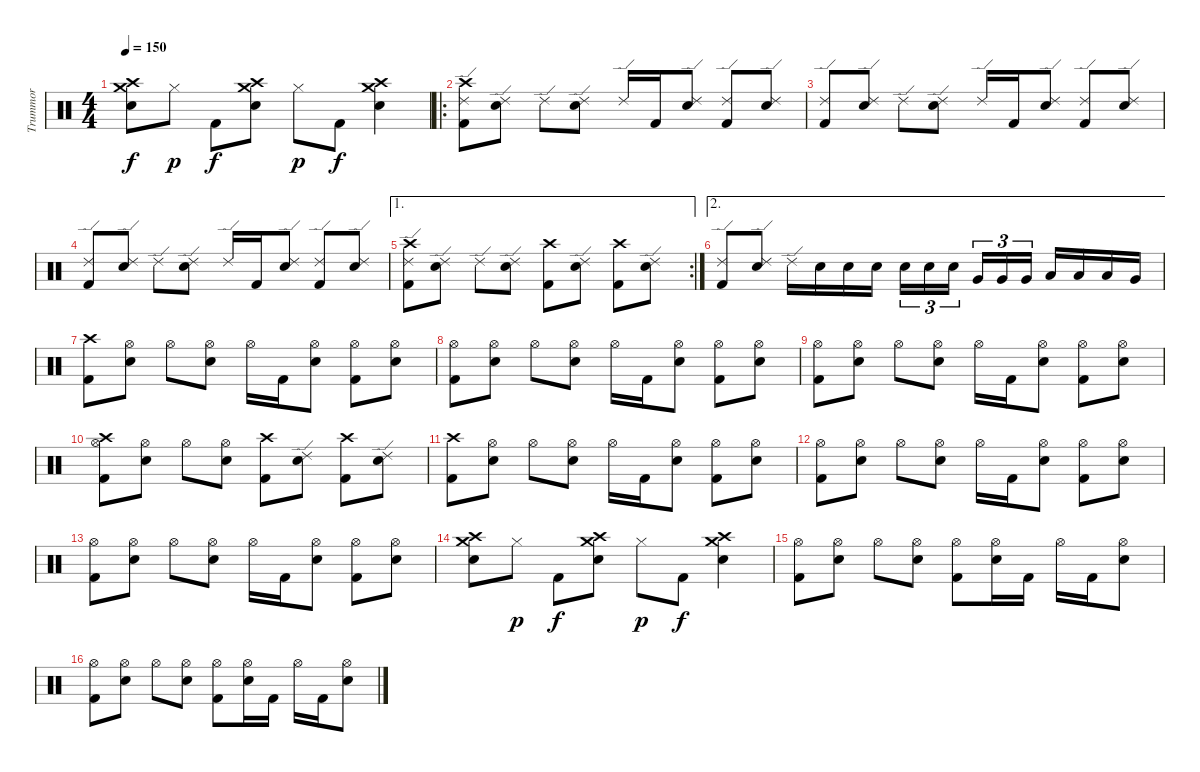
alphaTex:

\track ("Trummor" "Trummor") {instrument percussion}
\staff {score}
\articulation defaults
\ts (4 4)
\tempo 150
\clef neutral
\ks c
("Crash medium (hit)" "Snare (hit) 2" "Crash high (hit)").8{dy f} "Hi-Hat (closed)".8{dy p} "Kick (hit) 2".8{dy f} ("Crash medium (hit)" "Snare (hit) 2" "Crash high (hit)").8 "Hi-Hat (closed)".8{dy p} "Kick (hit) 2".8{dy f} ("Crash medium (hit)" "Snare (hit) 2" "Crash high (hit)").4 |
\ro
("Ride (edge) 2" "Crash high (hit)" "Kick (hit) 2").8 ("Ride (edge) 2" "Snare (hit) 2").8 "Ride (edge) 2".8 ("Ride (edge) 2" "Snare (hit) 2").8 "Ride (edge) 2".16 "Kick (hit) 2".16 ("Ride (edge) 2" "Snare (hit) 2").8 ("Ride (edge) 2" "Kick (hit) 2").8 ("Ride (edge) 2" "Snare (hit) 2").8 |
("Ride (edge) 2" "Kick (hit) 2").8 ("Ride (edge) 2" "Snare (hit) 2").8 "Ride (edge) 2".8 ("Ride (edge) 2" "Snare (hit) 2").8 "Ride (edge) 2".16 "Kick (hit) 2".16 ("Ride (edge) 2" "Snare (hit) 2").8 ("Ride (edge) 2" "Kick (hit) 2").8 ("Ride (edge) 2" "Snare (hit) 2").8 |
("Ride (edge) 2" "Kick (hit) 2").8 ("Ride (edge) 2" "Snare (hit) 2").8 "Ride (edge) 2".8 ("Ride (edge) 2" "Snare (hit) 2").8 "Ride (edge) 2".16 "Kick (hit) 2".16 ("Ride (edge) 2" "Snare (hit) 2").8 ("Ride (edge) 2" "Kick (hit) 2").8 ("Ride (edge) 2" "Snare (hit) 2").8 |
\ae 1
\rc 2
("Ride (edge) 2" "Crash high (hit)" "Kick (hit) 2").8 ("Ride (edge) 2" "Snare (hit) 2").8 "Ride (edge) 2".8 ("Ride (edge) 2" "Snare (hit) 2").8 ("Crash high (hit)" "Kick (hit) 2").8 ("Ride (edge) 2" "Snare (hit) 2").8 ("Crash high (hit)" "Kick (hit) 2").8 ("Ride (edge) 2" "Snare (hit) 2").8 |
\ae 2
("Ride (edge) 2" "Kick (hit) 2").8 ("Ride (edge) 2" "Snare (hit) 2").8 "Ride (edge) 2".16 "Snare (hit) 2".16 "Snare (hit) 2".16 "Snare (hit) 2".16 "Snare (hit) 2".16{tu (3 2)} "Snare (hit) 2".16{tu (3 2)} "Snare (hit) 2".16{tu (3 2)} "Very Low Tom (hit)".16{tu (3 2)} "Very Low Tom (hit)".16{tu (3 2)} "Very Low Tom (hit)".16{tu (3 2)} "Low Floor Tom (hit)".16 "Low Floor Tom (hit)".16 "Low Floor Tom (hit)".16 "Very Low Tom (hit)".16 |
("Crash high (hit)" "Kick (hit) 2").8 ("Hi-Hat (open)" "Snare (hit) 2").8 "Hi-Hat (open)".8 ("Hi-Hat (open)" "Snare (hit) 2").8 "Hi-Hat (open)".16 "Kick (hit) 2".16 ("Hi-Hat (open)" "Snare (hit) 2").8 ("Hi-Hat (open)" "Kick (hit) 2").8 ("Hi-Hat (open)" "Snare (hit) 2").8 |
("Hi-Hat (open)" "Kick (hit) 2").8 ("Hi-Hat (open)" "Snare (hit) 2").8 "Hi-Hat (open)".8 ("Hi-Hat (open)" "Snare (hit) 2").8 "Hi-Hat (open)".16 "Kick (hit) 2".16 ("Hi-Hat (open)" "Snare (hit) 2").8 ("Hi-Hat (open)" "Kick (hit) 2").8 ("Hi-Hat (open)" "Snare (hit) 2").8 |
("Hi-Hat (open)" "Kick (hit) 2").8 ("Hi-Hat (open)" "Snare (hit) 2").8 "Hi-Hat (open)".8 ("Hi-Hat (open)" "Snare (hit) 2").8 "Hi-Hat (open)".16 "Kick (hit) 2".16 ("Hi-Hat (open)" "Snare (hit) 2").8 ("Hi-Hat (open)" "Kick (hit) 2").8 ("Hi-Hat (open)" "Snare (hit) 2").8 |
("Hi-Hat (open)" "Crash high (hit)" "Kick (hit) 2").8 ("Hi-Hat (open)" "Snare (hit) 2").8 "Hi-Hat (open)".8 ("Hi-Hat (open)" "Snare (hit) 2").8 ("Crash high (hit)" "Kick (hit) 2").8 ("Ride (edge) 2" "Snare (hit) 2").8 ("Crash high (hit)" "Kick (hit) 2").8 ("Ride (edge) 2" "Snare (hit) 2").8 |
("Crash high (hit)" "Kick (hit) 2").8 ("Hi-Hat (open)" "Snare (hit) 2").8 "Hi-Hat (open)".8 ("Hi-Hat (open)" "Snare (hit) 2").8 "Hi-Hat (open)".16 "Kick (hit) 2".16 ("Hi-Hat (open)" "Snare (hit) 2").8 ("Hi-Hat (open)" "Kick (hit) 2").8 ("Hi-Hat (open)" "Snare (hit) 2").8 |
("Hi-Hat (open)" "Kick (hit) 2").8 ("Hi-Hat (open)" "Snare (hit) 2").8 "Hi-Hat (open)".8 ("Hi-Hat (open)" "Snare (hit) 2").8 "Hi-Hat (open)".16 "Kick (hit) 2".16 ("Hi-Hat (open)" "Snare (hit) 2").8 ("Hi-Hat (open)" "Kick (hit) 2").8 ("Hi-Hat (open)" "Snare (hit) 2").8 |
("Hi-Hat (open)" "Kick (hit) 2").8 ("Hi-Hat (open)" "Snare (hit) 2").8 "Hi-Hat (open)".8 ("Hi-Hat (open)" "Snare (hit) 2").8 "Hi-Hat (open)".16 "Kick (hit) 2".16 ("Hi-Hat (open)" "Snare (hit) 2").8 ("Hi-Hat (open)" "Kick (hit) 2").8 ("Hi-Hat (open)" "Snare (hit) 2").8 |
("Crash medium (hit)" "Snare (hit) 2" "Crash high (hit)").8 "Hi-Hat (closed)".8{dy p} "Kick (hit) 2".8{dy f} ("Crash medium (hit)" "Snare (hit) 2" "Crash high (hit)").8 "Hi-Hat (closed)".8{dy p} "Kick (hit) 2".8{dy f} ("Crash medium (hit)" "Snare (hit) 2" "Crash high (hit)").4 |
("Hi-Hat (open)" "Kick (hit) 2").8 ("Hi-Hat (open)" "Snare (hit) 2").8 "Hi-Hat (open)".8 ("Hi-Hat (open)" "Snare (hit) 2").8 ("Hi-Hat (open)" "Kick (hit) 2").8 ("Hi-Hat (open)" "Snare (hit) 2").16 "Kick (hit) 2".16 "Hi-Hat (open)".16 "Kick (hit) 2".16 ("Hi-Hat (open)" "Snare (hit) 2").8 |
("Hi-Hat (open)" "Kick (hit) 2").8 ("Hi-Hat (open)" "Snare (hit) 2").8 "Hi-Hat (open)".8 ("Hi-Hat (open)" "Snare (hit) 2").8 ("Hi-Hat (open)" "Kick (hit) 2").8 ("Hi-Hat (open)" "Snare (hit) 2").16 "Kick (hit) 2".16 "Hi-Hat (open)".16 "Kick (hit) 2".16 ("Hi-Hat (open)" "Snare (hit) 2").8
